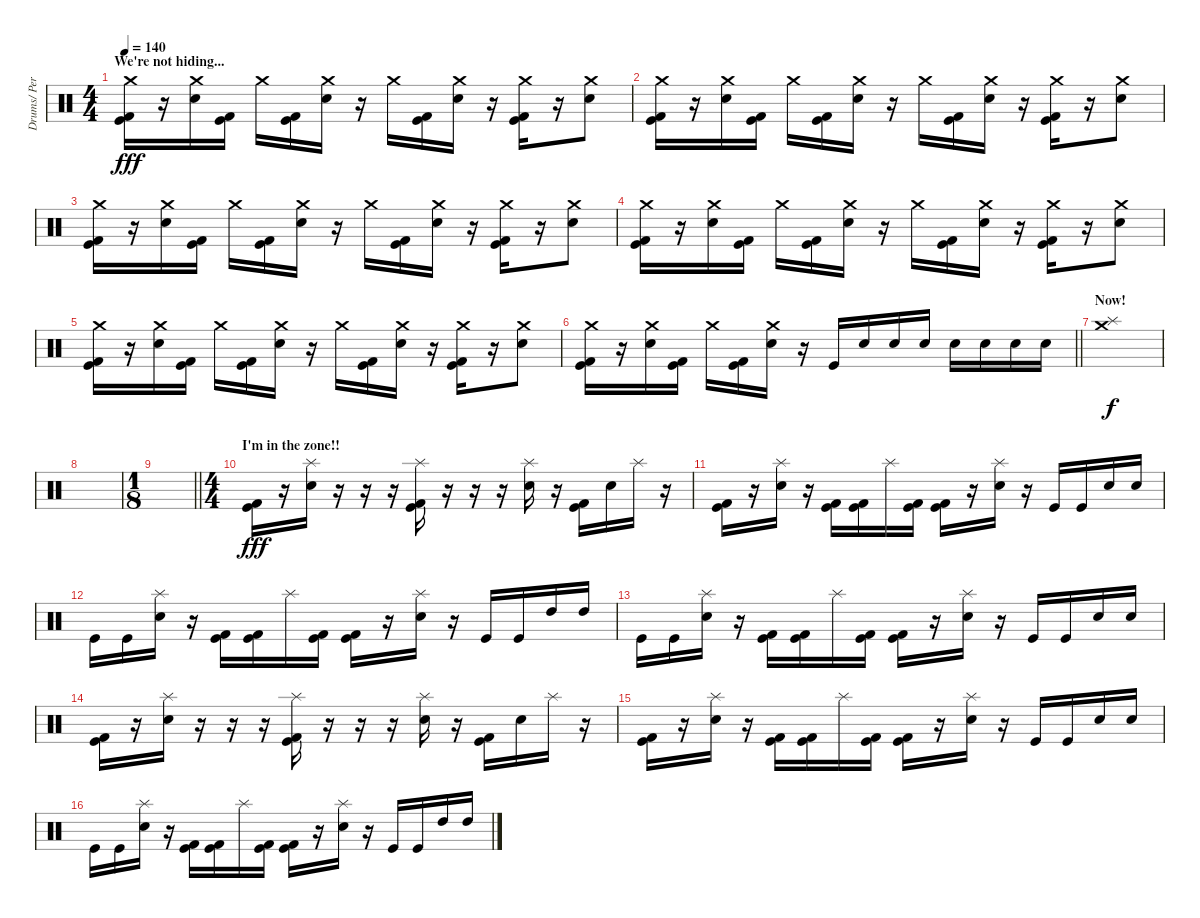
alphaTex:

\track ("Drums/ Percussion- Rob" "Drums/ Per") {instrument percussion}
\staff {score}
\articulation defaults
\ts (4 4)
\section ("" "We're not hiding...")
\tempo 140
\clef neutral
\ks c
("Kick (hit)" "Kick (hit) 2" "Crash medium (hit)").16{dy fff} r.16 ("Snare (hit) 2" "Crash medium (hit)").16 ("Kick (hit)" "Kick (hit) 2").16 "Crash medium (hit)".16 ("Kick (hit)" "Kick (hit) 2").16 ("Snare (hit) 2" "Crash medium (hit)").16 r.16 "Crash medium (hit)".16 ("Kick (hit)" "Kick (hit) 2").16 ("Snare (hit) 2" "Crash medium (hit)").16 r.16 ("Kick (hit)" "Kick (hit) 2" "Crash medium (hit)").16 r.16 ("Snare (hit) 2" "Crash medium (hit)").8 |
("Kick (hit)" "Kick (hit) 2" "Crash medium (hit)").16 r.16 ("Snare (hit) 2" "Crash medium (hit)").16 ("Kick (hit)" "Kick (hit) 2").16 "Crash medium (hit)".16 ("Kick (hit)" "Kick (hit) 2").16 ("Snare (hit) 2" "Crash medium (hit)").16 r.16 "Crash medium (hit)".16 ("Kick (hit)" "Kick (hit) 2").16 ("Snare (hit) 2" "Crash medium (hit)").16 r.16 ("Kick (hit)" "Kick (hit) 2" "Crash medium (hit)").16 r.16 ("Snare (hit) 2" "Crash medium (hit)").8 |
("Kick (hit)" "Kick (hit) 2" "Crash medium (hit)").16 r.16 ("Snare (hit) 2" "Crash medium (hit)").16 ("Kick (hit)" "Kick (hit) 2").16 "Crash medium (hit)".16 ("Kick (hit)" "Kick (hit) 2").16 ("Snare (hit) 2" "Crash medium (hit)").16 r.16 "Crash medium (hit)".16 ("Kick (hit)" "Kick (hit) 2").16 ("Snare (hit) 2" "Crash medium (hit)").16 r.16 ("Kick (hit)" "Kick (hit) 2" "Crash medium (hit)").16 r.16 ("Snare (hit) 2" "Crash medium (hit)").8 |
("Kick (hit)" "Kick (hit) 2" "Crash medium (hit)").16 r.16 ("Snare (hit) 2" "Crash medium (hit)").16 ("Kick (hit)" "Kick (hit) 2").16 "Crash medium (hit)".16 ("Kick (hit)" "Kick (hit) 2").16 ("Snare (hit) 2" "Crash medium (hit)").16 r.16 "Crash medium (hit)".16 ("Kick (hit)" "Kick (hit) 2").16 ("Snare (hit) 2" "Crash medium (hit)").16 r.16 ("Kick (hit)" "Kick (hit) 2" "Crash medium (hit)").16 r.16 ("Snare (hit) 2" "Crash medium (hit)").8 |
("Kick (hit)" "Kick (hit) 2" "Crash medium (hit)").16 r.16 ("Snare (hit) 2" "Crash medium (hit)").16 ("Kick (hit)" "Kick (hit) 2").16 "Crash medium (hit)".16 ("Kick (hit)" "Kick (hit) 2").16 ("Snare (hit) 2" "Crash medium (hit)").16 r.16 "Crash medium (hit)".16 ("Kick (hit)" "Kick (hit) 2").16 ("Snare (hit) 2" "Crash medium (hit)").16 r.16 ("Kick (hit)" "Kick (hit) 2" "Crash medium (hit)").16 r.16 ("Snare (hit) 2" "Crash medium (hit)").8 |
\barLineRight lightlight
("Kick (hit)" "Kick (hit) 2" "Crash medium (hit)").16 r.16 ("Snare (hit) 2" "Crash medium (hit)").16 ("Kick (hit)" "Kick (hit) 2").16 "Crash medium (hit)".16 ("Kick (hit)" "Kick (hit) 2").16 ("Snare (hit) 2" "Crash medium (hit)").16 r.16 "Kick (hit)".16 "Snare (hit) 2".16 "Snare (hit) 2".16 "Snare (hit) 2".16 "Snare (hit) 2".16 "Snare (hit) 2".16 "Snare (hit) 2".16 "Snare (hit) 2".16 |
\section ("" "Now!")
("Crash medium (hit)" "Splash (hit)").1{dy f} |
|
\ts (1 8)
\barLineRight lightlight
|
\ts (4 4)
\section ("" "I'm in the zone!!")
("Kick (hit)" "Kick (hit) 2").16{dy fff} r.16 ("Splash (hit)" "Snare (hit) 2").16 r.16 r.16 r.16 ("Splash (hit)" "Kick (hit) 2" "Kick (hit)").16 r.16 r.16 r.16 ("Splash (hit)" "Snare (hit) 2").16 r.16 ("Kick (hit) 2" "Kick (hit)").16 "Snare (hit) 2".16 "Splash (hit)".16 r.16 |
("Kick (hit) 2" "Kick (hit)").16 r.16 ("Splash (hit)" "Snare (hit) 2").16 r.16 ("Kick (hit)" "Kick (hit) 2").16 ("Kick (hit)" "Kick (hit) 2").16 "Splash (hit)".16 ("Kick (hit)" "Kick (hit) 2").16 ("Kick (hit)" "Kick (hit) 2").16 r.16 ("Splash (hit)" "Snare (hit) 2").16 r.16 "Kick (hit)".16 "Kick (hit)".16 "Snare (hit) 2".16 "Snare (hit) 2".16 |
"Kick (hit)".16 "Kick (hit)".16 ("Splash (hit)" "Snare (hit) 2").16 r.16 ("Kick (hit)" "Kick (hit) 2").16 ("Kick (hit)" "Kick (hit) 2").16 "Splash (hit)".16 ("Kick (hit)" "Kick (hit) 2").16 ("Kick (hit)" "Kick (hit) 2").16 r.16 ("Splash (hit)" "Snare (hit) 2").16 r.16 "Kick (hit)".16 "Kick (hit)".16 "High Tom (hit)".16 "High Tom (hit)".16 |
"Kick (hit)".16 "Kick (hit)".16 ("Splash (hit)" "Snare (hit) 2").16 r.16 ("Kick (hit)" "Kick (hit) 2").16 ("Kick (hit)" "Kick (hit) 2").16 "Splash (hit)".16 ("Kick (hit)" "Kick (hit) 2").16 ("Kick (hit)" "Kick (hit) 2").16 r.16 ("Splash (hit)" "Snare (hit) 2").16 r.16 "Kick (hit)".16 "Kick (hit)".16 "Snare (hit) 2".16 "Snare (hit) 2".16 |
("Kick (hit)" "Kick (hit) 2").16 r.16 ("Splash (hit)" "Snare (hit) 2").16 r.16 r.16 r.16 ("Splash (hit)" "Kick (hit) 2" "Kick (hit)").16 r.16 r.16 r.16 ("Splash (hit)" "Snare (hit) 2").16 r.16 ("Kick (hit) 2" "Kick (hit)").16 "Snare (hit) 2".16 "Splash (hit)".16 r.16 |
("Kick (hit) 2" "Kick (hit)").16 r.16 ("Splash (hit)" "Snare (hit) 2").16 r.16 ("Kick (hit)" "Kick (hit) 2").16 ("Kick (hit)" "Kick (hit) 2").16 "Splash (hit)".16 ("Kick (hit)" "Kick (hit) 2").16 ("Kick (hit)" "Kick (hit) 2").16 r.16 ("Splash (hit)" "Snare (hit) 2").16 r.16 "Kick (hit)".16 "Kick (hit)".16 "Snare (hit) 2".16 "Snare (hit) 2".16 |
"Kick (hit)".16 "Kick (hit)".16 ("Splash (hit)" "Snare (hit) 2").16 r.16 ("Kick (hit)" "Kick (hit) 2").16 ("Kick (hit)" "Kick (hit) 2").16 "Splash (hit)".16 ("Kick (hit)" "Kick (hit) 2").16 ("Kick (hit)" "Kick (hit) 2").16 r.16 ("Splash (hit)" "Snare (hit) 2").16 r.16 "Kick (hit)".16 "Kick (hit)".16 "High Tom (hit)".16 "High Tom (hit)".16
